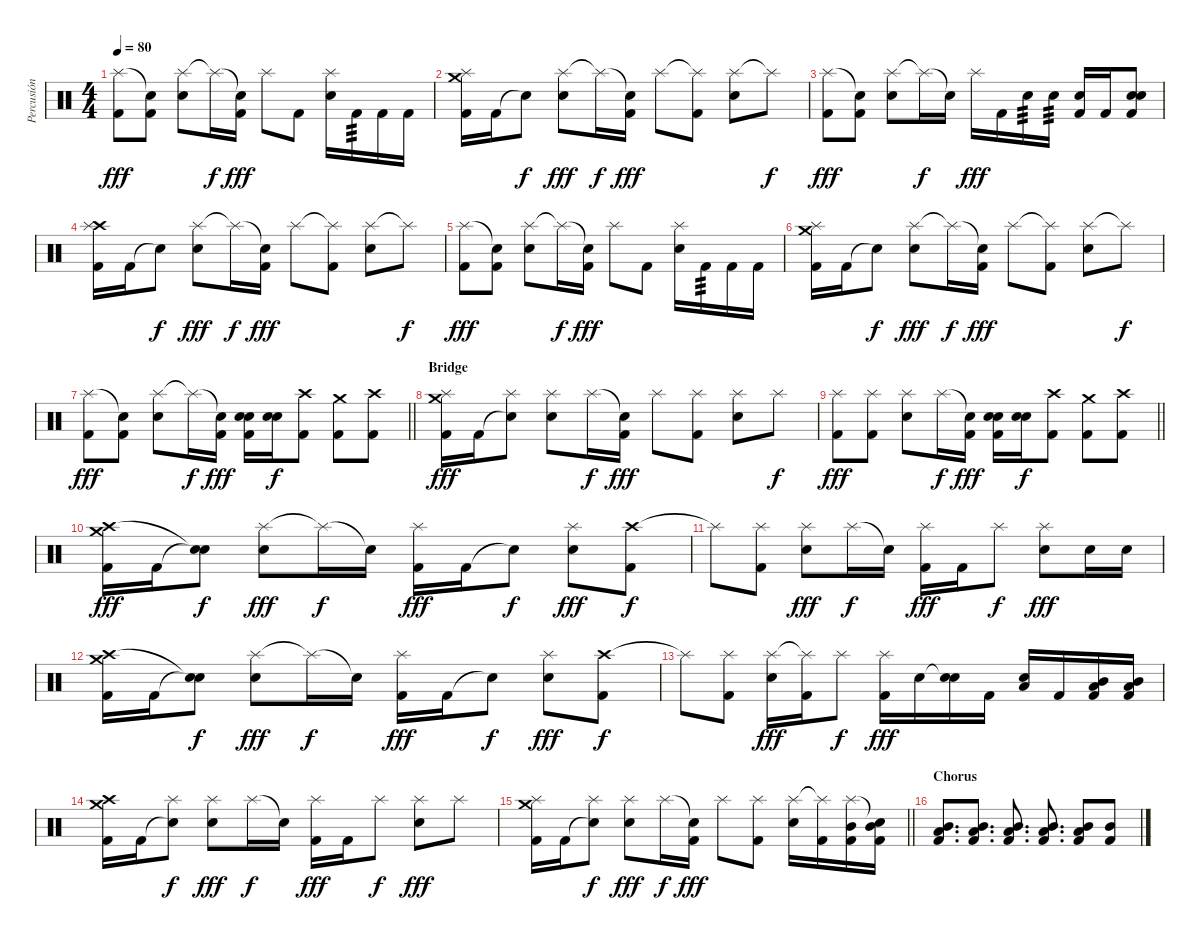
\track ("Percusión" "Percusión") {instrument percussion}
\staff {score}
\articulation defaults
\ts (4 4)
\tempo 80
\clef neutral
\ks c
("Splash (hit)" "Kick (hit) 2").8{dy fff} ("Snare (hit)"{t} "Kick (hit) 2").8 ("Splash (hit)" "Electric Snare (hit)").8 "Splash (hit)"{t}.16{dy f} ("Snare (hit)"{t} "Kick (hit) 2").16{dy fff} "Splash (hit)".8 "Kick (hit) 2".8 ("Splash (hit)" "Electric Snare (hit)").16 "Kick (hit) 2".16{tp 3} "Kick (hit) 2".16 "Kick (hit) 2".16 |
("Crash medium (hit)" "Splash (hit)" "Kick (hit) 2").16 "Kick (hit) 2".16 "Snare (hit)"{t}.8{dy f} ("Splash (hit)" "Electric Snare (hit)").8{dy fff} "Splash (hit)"{t}.16{dy f} ("Snare (hit)"{t} "Kick (hit) 2").16{dy fff} "Splash (hit)".8 ("Splash (hit)"{t} "Kick (hit) 2").8 ("Splash (hit)" "Electric Snare (hit)").8 "Splash (hit)"{t}.8{dy f} |
("Splash (hit)" "Kick (hit) 2").8{dy fff} ("Snare (hit)"{t} "Kick (hit) 2").8 ("Splash (hit)" "Electric Snare (hit)").8 "Splash (hit)"{t}.16{dy f} "Snare (hit)"{t}.16 "Splash (hit)".16{dy fff} "Kick (hit) 2".16 "Electric Snare (hit)".16{tp 3} "Electric Snare (hit)".16{tp 3} ("Electric Snare (hit)" "Kick (hit) 2").16 "Kick (hit) 2".16 ("Electric Snare (hit)" "Electric Snare (hit)" "Kick (hit) 2").8 |
("Crash high (hit)" "Splash (hit)" "Kick (hit) 2").16 "Kick (hit) 2".16 "Snare (hit)"{t}.8{dy f} ("Splash (hit)" "Electric Snare (hit)").8{dy fff} "Splash (hit)"{t}.16{dy f} ("Snare (hit)"{t} "Kick (hit) 2").16{dy fff} "Splash (hit)".8 ("Splash (hit)"{t} "Kick (hit) 2").8 ("Splash (hit)" "Electric Snare (hit)").8 "Splash (hit)"{t}.8{dy f} |
("Splash (hit)" "Kick (hit) 2").8{dy fff} ("Snare (hit)"{t} "Kick (hit) 2").8 ("Splash (hit)" "Electric Snare (hit)").8 "Splash (hit)"{t}.16{dy f} ("Snare (hit)"{t} "Kick (hit) 2").16{dy fff} "Splash (hit)".8 "Kick (hit) 2".8 ("Splash (hit)" "Electric Snare (hit)").16 "Kick (hit) 2".16{tp 3} "Kick (hit) 2".16 "Kick (hit) 2".16 |
("Crash medium (hit)" "Splash (hit)" "Kick (hit) 2").16 "Kick (hit) 2".16 "Snare (hit)"{t}.8{dy f} ("Splash (hit)" "Electric Snare (hit)").8{dy fff} "Splash (hit)"{t}.16{dy f} ("Snare (hit)"{t} "Kick (hit) 2").16{dy fff} "Splash (hit)".8 ("Splash (hit)"{t} "Kick (hit) 2").8 ("Splash (hit)" "Electric Snare (hit)").8 "Splash (hit)"{t}.8{dy f} |
\barLineRight lightlight
("Splash (hit)" "Kick (hit) 2").8{dy fff} ("Snare (hit)"{t} "Kick (hit) 2").8 ("Splash (hit)" "Electric Snare (hit)").8 "Splash (hit)"{t}.16{dy f} ("Snare (hit)"{t} "Kick (hit) 2").16{dy fff} ("Electric Snare (hit)" "Electric Snare (hit)" "Kick (hit) 2").16 ("Snare (hit) 2" "Electric Snare (hit)").16{dy f} ("Crash high (hit)" "Kick (hit) 2").8 ("Crash medium (hit)" "Kick (hit) 2").8 ("Crash high (hit)" "Kick (hit) 2").8 |
\section ("" "Bridge")
("Crash medium (hit)" "Splash (hit)" "Kick (hit) 2").16{dy fff} "Kick (hit) 2".16 ("Snare (hit)"{t} "Splash (hit)").8 ("Splash (hit)" "Electric Snare (hit)").8 "Splash (hit)".16{dy f} ("Snare (hit)"{t} "Kick (hit) 2").16{dy fff} "Splash (hit)".8 ("Splash (hit)" "Kick (hit) 2").8 ("Splash (hit)" "Electric Snare (hit)").8 "Splash (hit)".8{dy f} |
\barLineRight lightlight
("Splash (hit)" "Kick (hit) 2").8{dy fff} ("Splash (hit)" "Kick (hit) 2").8 ("Splash (hit)" "Electric Snare (hit)").8 "Splash (hit)".16{dy f} ("Snare (hit)"{t} "Kick (hit) 2").16{dy fff} ("Electric Snare (hit)" "Electric Snare (hit)" "Kick (hit) 2").16 ("Snare (hit) 2" "Electric Snare (hit)").16{dy f} ("Crash high (hit)" "Kick (hit) 2").8 ("Crash medium (hit)" "Kick (hit) 2").8 ("Crash high (hit)" "Kick (hit) 2").8 |
("Crash medium (hit)" "Crash high (hit)" "Kick (hit) 2").16{dy fff} "Kick (hit) 2".16 ("Snare (hit)"{t} "Snare (hit)"{t}).8{dy f} ("Splash (hit)" "Electric Snare (hit)").8{dy fff} "Splash (hit)"{t}.16{dy f} "Snare (hit)"{t}.16 ("Splash (hit)" "Kick (hit) 2").16{dy fff} "Kick (hit) 2".16 "Snare (hit)"{t}.8{dy f} ("Splash (hit)" "Electric Snare (hit)").8{dy fff} ("Crash high (hit)" "Kick (hit) 2").8{dy f} |
"Splash (hit)"{t}.8 ("Splash (hit)" "Kick (hit) 2").8 ("Splash (hit)" "Electric Snare (hit)").8{dy fff} "Splash (hit)".16{dy f} "Snare (hit)"{t}.16 ("Splash (hit)" "Kick (hit) 2").16{dy fff} "Kick (hit) 2".16 "Splash (hit)".8{dy f} ("Splash (hit)" "Electric Snare (hit)").8{dy fff} "Electric Snare (hit)".16 "Electric Snare (hit)".16 |
("Crash medium (hit)" "Crash high (hit)" "Kick (hit) 2").16 "Kick (hit) 2".16 ("Snare (hit)"{t} "Snare (hit)"{t}).8{dy f} ("Splash (hit)" "Electric Snare (hit)").8{dy fff} "Splash (hit)"{t}.16{dy f} "Snare (hit)"{t}.16 ("Splash (hit)" "Kick (hit) 2").16{dy fff} "Kick (hit) 2".16 "Snare (hit)"{t}.8{dy f} ("Splash (hit)" "Electric Snare (hit)").8{dy fff} ("Crash high (hit)" "Kick (hit) 2").8{dy f} |
"Splash (hit)"{t}.8 ("Splash (hit)" "Kick (hit) 2").8 ("Splash (hit)" "Electric Snare (hit)").16{dy fff} ("Splash (hit)"{t} "Kick (hit) 2").16 "Splash (hit)".8{dy f} ("Splash (hit)" "Kick (hit) 2").16{dy fff} "Electric Snare (hit)".16 ("Snare (hit)"{t} "Electric Snare (hit)").16 "Kick (hit) 2".16 ("Low Tom (hit)" "Electric Snare (hit)").16 "Kick (hit) 2".16 ("Low Tom (hit)" "Mid Tom (hit)" "Kick (hit) 2").16 ("Low Tom (hit)" "Mid Tom (hit)" "Kick (hit) 2").16 |
("Crash medium (hit)" "Crash high (hit)" "Kick (hit) 2").16 "Kick (hit) 2".16 ("Snare (hit)"{t} "Splash (hit)").8{dy f} ("Splash (hit)" "Electric Snare (hit)").8{dy fff} "Splash (hit)".16{dy f} "Snare (hit)"{t}.16 ("Splash (hit)" "Kick (hit) 2").16{dy fff} "Kick (hit) 2".16 "Splash (hit)".8{dy f} ("Splash (hit)" "Electric Snare (hit)").8{dy fff} "Splash (hit)".8 |
\barLineRight lightlight
("Crash medium (hit)" "Splash (hit)" "Kick (hit) 2").16 "Kick (hit) 2".16 ("Snare (hit)"{t} "Splash (hit)").8{dy f} ("Splash (hit)" "Electric Snare (hit)").8{dy fff} "Splash (hit)".16{dy f} ("Snare (hit)"{t} "Kick (hit) 2").16{dy fff} "Splash (hit)".8 ("Splash (hit)" "Kick (hit) 2").8 ("Splash (hit)" "Electric Snare (hit)").16 ("Splash (hit)"{t} "Kick (hit) 2").16 ("Splash (hit)" "Mid Tom (hit)" "Kick (hit) 2").16 ("Snare (hit)"{t} "Mid Tom (hit)" "Kick (hit) 2").16 |
\section ("" "Chorus")
("Low Tom (hit)" "Mid Tom (hit)" "Kick (hit) 2").8{d} ("Mid Tom (hit)" "Low Tom (hit)" "Kick (hit) 2").8{d} ("Low Tom (hit)" "Mid Tom (hit)" "Kick (hit) 2").8{d} ("Mid Tom (hit)" "Low Tom (hit)" "Kick (hit) 2").8{d} ("Low Tom (hit)" "Mid Tom (hit)" "Kick (hit) 2").8 ("Mid Tom (hit)" "Kick (hit) 2").8
